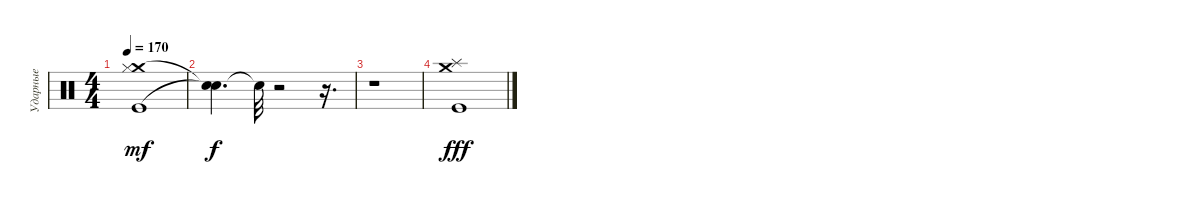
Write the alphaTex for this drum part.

\track ("Ударные" "Ударные") {instrument percussion}
\staff {score}
\articulation defaults
\ts (4 4)
\tempo 170
\clef neutral
\ks c
("Kick (hit)" "Crash medium (hit)" "Hi-Hat (closed)").1{dy mf} |
("Snare (hit)"{t} "Snare (hit)"{t}).4{d dy f} "Snare (hit)"{t}.32 r.2 r.16{d} |
r.1 |
("Crash medium (hit)" "Splash (hit)" "Kick (hit)").1{dy fff}
